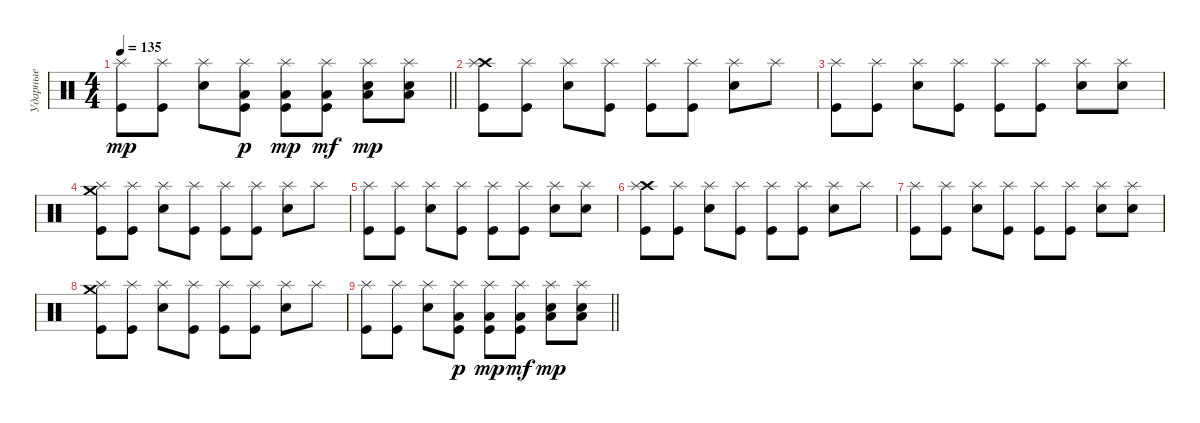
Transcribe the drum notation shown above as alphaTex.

\track ("Ударные" "Ударные") {instrument percussion}
\staff
\articulation defaults
\ts (4 4)
\tempo 135
\clef neutral
\barLineRight lightlight
\ks c
("Splash (hit)" "Kick (hit)").8{dy mp} ("Splash (hit)" "Kick (hit)").8 ("Splash (hit)" "Snare (hit) 2").8 ("Splash (hit)" "Low Floor Tom (hit)" "Kick (hit)").8{dy p} ("Splash (hit)" "Low Floor Tom (hit)" "Kick (hit)").8{dy mp} ("Splash (hit)" "Low Floor Tom (hit)" "Kick (hit)").8{dy mf} ("Splash (hit)" "Low Floor Tom (hit)" "Snare (hit) 2").8{dy mp} ("Splash (hit)" "Low Floor Tom (hit)" "Snare (hit) 2").8 |
("Crash high (hit)" "Splash (hit)" "Kick (hit)").8 ("Splash (hit)" "Kick (hit)").8 ("Splash (hit)" "Snare (hit) 2").8 ("Splash (hit)" "Kick (hit)").8 ("Splash (hit)" "Kick (hit)").8 ("Splash (hit)" "Kick (hit)").8 ("Splash (hit)" "Snare (hit) 2").8 "Splash (hit)".8 |
("Splash (hit)" "Kick (hit)").8 ("Splash (hit)" "Kick (hit)").8 ("Splash (hit)" "Snare (hit) 2").8 ("Splash (hit)" "Kick (hit)").8 ("Splash (hit)" "Kick (hit)").8 ("Splash (hit)" "Kick (hit)").8 ("Splash (hit)" "Snare (hit) 2").8 ("Splash (hit)" "Snare (hit) 2").8 |
("Crash medium (hit)" "Splash (hit)" "Kick (hit)").8 ("Splash (hit)" "Kick (hit)").8 ("Splash (hit)" "Snare (hit) 2").8 ("Splash (hit)" "Kick (hit)").8 ("Splash (hit)" "Kick (hit)").8 ("Splash (hit)" "Kick (hit)").8 ("Splash (hit)" "Snare (hit) 2").8 "Splash (hit)".8 |
("Splash (hit)" "Kick (hit)").8 ("Splash (hit)" "Kick (hit)").8 ("Splash (hit)" "Snare (hit) 2").8 ("Splash (hit)" "Kick (hit)").8 ("Splash (hit)" "Kick (hit)").8 ("Splash (hit)" "Kick (hit)").8 ("Splash (hit)" "Snare (hit) 2").8 ("Splash (hit)" "Snare (hit) 2").8 |
("Crash high (hit)" "Splash (hit)" "Kick (hit)").8{volume 1} ("Splash (hit)" "Kick (hit)").8 ("Splash (hit)" "Snare (hit) 2").8 ("Splash (hit)" "Kick (hit)").8 ("Splash (hit)" "Kick (hit)").8 ("Splash (hit)" "Kick (hit)").8 ("Splash (hit)" "Snare (hit) 2").8 "Splash (hit)".8 |
("Splash (hit)" "Kick (hit)").8 ("Splash (hit)" "Kick (hit)").8 ("Splash (hit)" "Snare (hit) 2").8 ("Splash (hit)" "Kick (hit)").8 ("Splash (hit)" "Kick (hit)").8 ("Splash (hit)" "Kick (hit)").8 ("Splash (hit)" "Snare (hit) 2").8 ("Splash (hit)" "Snare (hit) 2").8 |
("Crash medium (hit)" "Splash (hit)" "Kick (hit)").8 ("Splash (hit)" "Kick (hit)").8 ("Splash (hit)" "Snare (hit) 2").8 ("Splash (hit)" "Kick (hit)").8 ("Splash (hit)" "Kick (hit)").8 ("Splash (hit)" "Kick (hit)").8 ("Splash (hit)" "Snare (hit) 2").8 "Splash (hit)".8 |
\barLineRight lightlight
("Splash (hit)" "Kick (hit)").8 ("Splash (hit)" "Kick (hit)").8 ("Splash (hit)" "Snare (hit) 2").8 ("Splash (hit)" "Low Floor Tom (hit)" "Kick (hit)").8{dy p} ("Splash (hit)" "Low Floor Tom (hit)" "Kick (hit)").8{dy mp} ("Splash (hit)" "Low Floor Tom (hit)" "Kick (hit)").8{dy mf} ("Splash (hit)" "Low Floor Tom (hit)" "Snare (hit) 2").8{dy mp} ("Splash (hit)" "Low Floor Tom (hit)" "Snare (hit) 2").8
